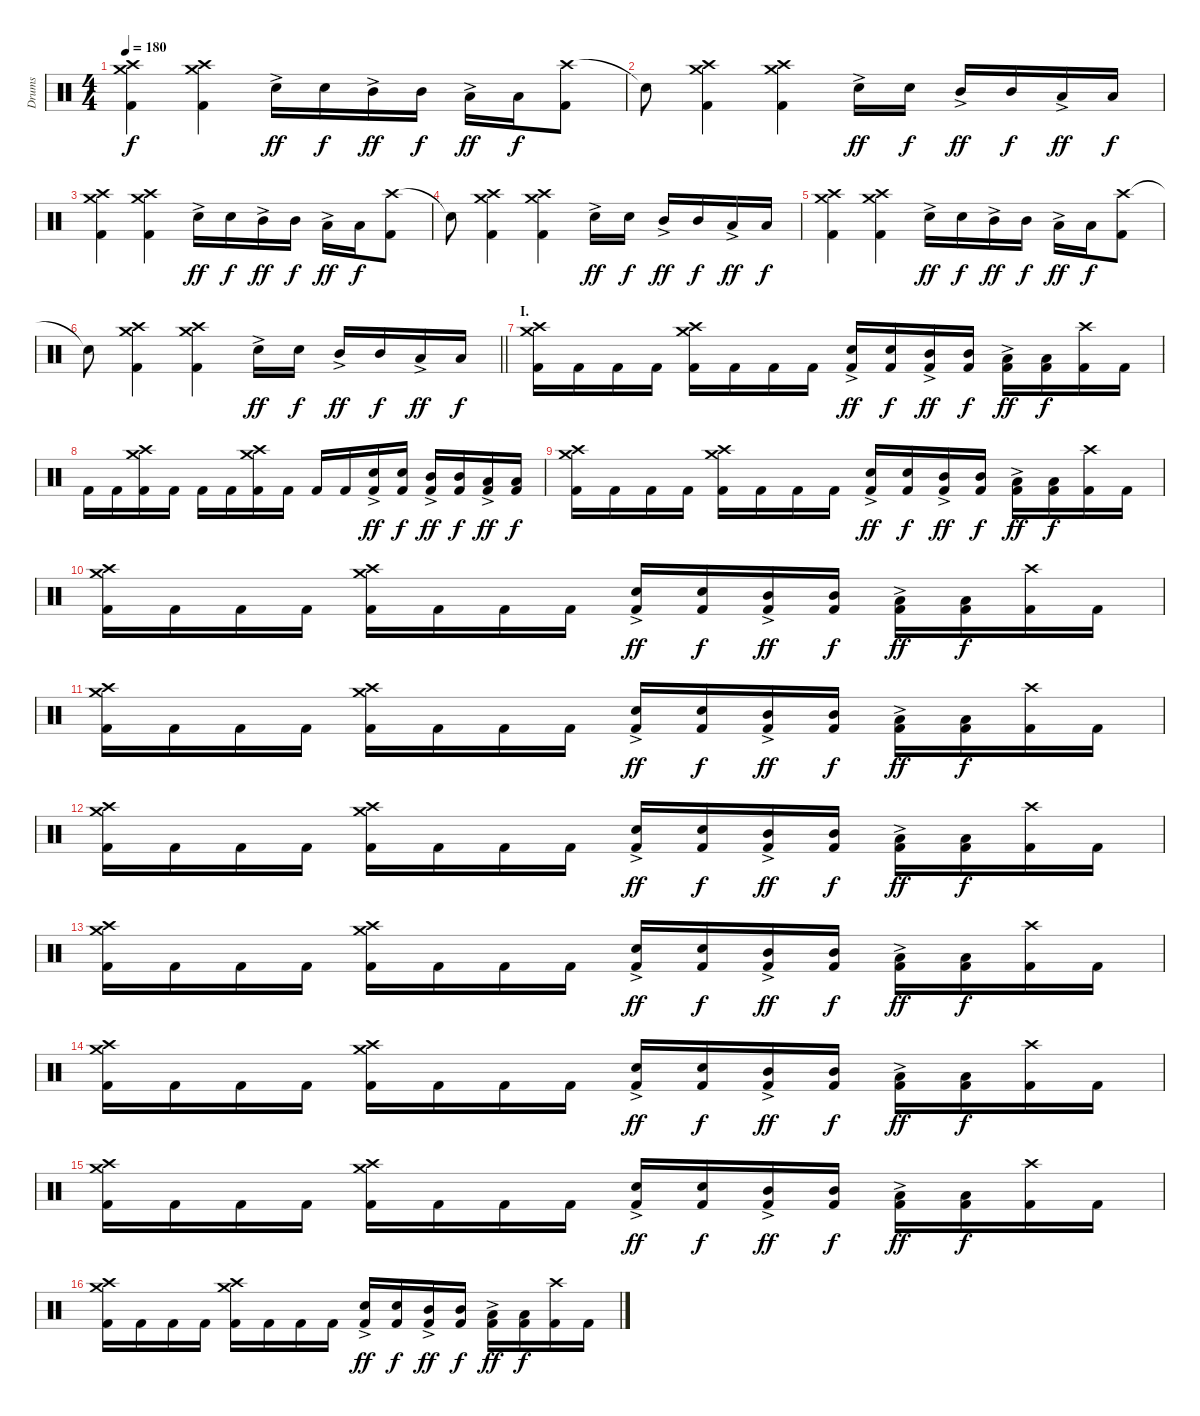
\track ("Drums" "Drums") {instrument percussion}
\staff {score}
\articulation defaults
\ts (4 4)
\tempo 180
\clef neutral
\ks c
("Crash medium (hit)" "Crash high (hit)" "Kick (hit) 2").4{dy f} ("Crash medium (hit)" "Crash high (hit)" "Kick (hit) 2").4 "Electric Snare (hit)"{ac}.16{dy ff} "Electric Snare (hit)".16{dy f} "Mid Tom (hit)"{ac}.16{dy ff} "Mid Tom (hit)".16{dy f} "Low Tom (hit)"{ac}.16{dy ff} "Low Tom (hit)".16{dy f} ("Crash high (hit)" "Kick (hit) 2").8 |
"Snare (hit)"{t}.8 ("Crash medium (hit)" "Crash high (hit)" "Kick (hit) 2").4 ("Crash medium (hit)" "Crash high (hit)" "Kick (hit) 2").4 "Electric Snare (hit)"{ac}.16{dy ff} "Electric Snare (hit)".16{dy f} "Mid Tom (hit)"{ac}.16{dy ff} "Mid Tom (hit)".16{dy f} "Low Tom (hit)"{ac}.16{dy ff} "Low Tom (hit)".16{dy f} |
("Crash medium (hit)" "Crash high (hit)" "Kick (hit) 2").4 ("Crash medium (hit)" "Crash high (hit)" "Kick (hit) 2").4 "Electric Snare (hit)"{ac}.16{dy ff} "Electric Snare (hit)".16{dy f} "Mid Tom (hit)"{ac}.16{dy ff} "Mid Tom (hit)".16{dy f} "Low Tom (hit)"{ac}.16{dy ff} "Low Tom (hit)".16{dy f} ("Crash high (hit)" "Kick (hit) 2").8 |
"Snare (hit)"{t}.8 ("Crash medium (hit)" "Crash high (hit)" "Kick (hit) 2").4 ("Crash medium (hit)" "Crash high (hit)" "Kick (hit) 2").4 "Electric Snare (hit)"{ac}.16{dy ff} "Electric Snare (hit)".16{dy f} "Mid Tom (hit)"{ac}.16{dy ff} "Mid Tom (hit)".16{dy f} "Low Tom (hit)"{ac}.16{dy ff} "Low Tom (hit)".16{dy f} |
("Crash medium (hit)" "Crash high (hit)" "Kick (hit) 2").4 ("Crash medium (hit)" "Crash high (hit)" "Kick (hit) 2").4 "Electric Snare (hit)"{ac}.16{dy ff} "Electric Snare (hit)".16{dy f} "Mid Tom (hit)"{ac}.16{dy ff} "Mid Tom (hit)".16{dy f} "Low Tom (hit)"{ac}.16{dy ff} "Low Tom (hit)".16{dy f} ("Crash high (hit)" "Kick (hit) 2").8 |
\barLineRight lightlight "Snare (hit)"{t}.8
("Crash medium (hit)" "Crash high (hit)" "Kick (hit) 2").4 ("Crash medium (hit)" "Crash high (hit)" "Kick (hit) 2").4 "Electric Snare (hit)"{ac}.16{dy ff} "Electric Snare (hit)".16{dy f} "Mid Tom (hit)"{ac}.16{dy ff} "Mid Tom (hit)".16{dy f} "Low Tom (hit)"{ac}.16{dy ff} "Low Tom (hit)".16{dy f} |
\section ("" "I.")
("Crash medium (hit)" "Crash high (hit)" "Kick (hit) 2").16 "Kick (hit) 2".16 "Kick (hit) 2".16 "Kick (hit) 2".16 ("Crash medium (hit)" "Crash high (hit)" "Kick (hit) 2").16 "Kick (hit) 2".16 "Kick (hit) 2".16 "Kick (hit) 2".16 ("Electric Snare (hit)"{ac} "Kick (hit) 2").16{dy ff} ("Electric Snare (hit)" "Kick (hit) 2").16{dy f} ("Mid Tom (hit)"{ac} "Kick (hit) 2").16{dy ff} ("Mid Tom (hit)" "Kick (hit) 2").16{dy f} ("Low Tom (hit)"{ac} "Kick (hit) 2").16{dy ff} ("Low Tom (hit)" "Kick (hit) 2").16{dy f} ("Crash high (hit)" "Kick (hit) 2").16 "Kick (hit) 2".16 |
"Kick (hit) 2".16 "Kick (hit) 2".16 ("Crash medium (hit)" "Crash high (hit)" "Kick (hit) 2").16 "Kick (hit) 2".16 "Kick (hit) 2".16 "Kick (hit) 2".16 ("Crash medium (hit)" "Crash high (hit)" "Kick (hit) 2").16 "Kick (hit) 2".16 "Kick (hit) 2".16 "Kick (hit) 2".16 ("Electric Snare (hit)"{ac} "Kick (hit) 2").16{dy ff} ("Electric Snare (hit)" "Kick (hit) 2").16{dy f} ("Mid Tom (hit)"{ac} "Kick (hit) 2").16{dy ff} ("Mid Tom (hit)" "Kick (hit) 2").16{dy f} ("Low Tom (hit)"{ac} "Kick (hit) 2").16{dy ff} ("Low Tom (hit)" "Kick (hit) 2").16{dy f} |
("Crash medium (hit)" "Crash high (hit)" "Kick (hit) 2").16 "Kick (hit) 2".16 "Kick (hit) 2".16 "Kick (hit) 2".16 ("Crash medium (hit)" "Crash high (hit)" "Kick (hit) 2").16 "Kick (hit) 2".16 "Kick (hit) 2".16 "Kick (hit) 2".16 ("Electric Snare (hit)"{ac} "Kick (hit) 2").16{dy ff} ("Electric Snare (hit)" "Kick (hit) 2").16{dy f} ("Mid Tom (hit)"{ac} "Kick (hit) 2").16{dy ff} ("Mid Tom (hit)" "Kick (hit) 2").16{dy f} ("Low Tom (hit)"{ac} "Kick (hit) 2").16{dy ff} ("Low Tom (hit)" "Kick (hit) 2").16{dy f} ("Crash high (hit)" "Kick (hit) 2").16 "Kick (hit) 2".16 |
("Crash medium (hit)" "Crash high (hit)" "Kick (hit) 2").16 "Kick (hit) 2".16 "Kick (hit) 2".16 "Kick (hit) 2".16 ("Crash medium (hit)" "Crash high (hit)" "Kick (hit) 2").16 "Kick (hit) 2".16 "Kick (hit) 2".16 "Kick (hit) 2".16 ("Electric Snare (hit)"{ac} "Kick (hit) 2").16{dy ff} ("Electric Snare (hit)" "Kick (hit) 2").16{dy f} ("Mid Tom (hit)"{ac} "Kick (hit) 2").16{dy ff} ("Mid Tom (hit)" "Kick (hit) 2").16{dy f} ("Low Tom (hit)"{ac} "Kick (hit) 2").16{dy ff} ("Low Tom (hit)" "Kick (hit) 2").16{dy f} ("Crash high (hit)" "Kick (hit) 2").16 "Kick (hit) 2".16 |
("Crash medium (hit)" "Crash high (hit)" "Kick (hit) 2").16 "Kick (hit) 2".16 "Kick (hit) 2".16 "Kick (hit) 2".16 ("Crash medium (hit)" "Crash high (hit)" "Kick (hit) 2").16 "Kick (hit) 2".16 "Kick (hit) 2".16 "Kick (hit) 2".16 ("Electric Snare (hit)"{ac} "Kick (hit) 2").16{dy ff} ("Electric Snare (hit)" "Kick (hit) 2").16{dy f} ("Mid Tom (hit)"{ac} "Kick (hit) 2").16{dy ff} ("Mid Tom (hit)" "Kick (hit) 2").16{dy f} ("Low Tom (hit)"{ac} "Kick (hit) 2").16{dy ff} ("Low Tom (hit)" "Kick (hit) 2").16{dy f} ("Crash high (hit)" "Kick (hit) 2").16 "Kick (hit) 2".16 |
("Crash medium (hit)" "Crash high (hit)" "Kick (hit) 2").16 "Kick (hit) 2".16 "Kick (hit) 2".16 "Kick (hit) 2".16 ("Crash medium (hit)" "Crash high (hit)" "Kick (hit) 2").16 "Kick (hit) 2".16 "Kick (hit) 2".16 "Kick (hit) 2".16 ("Electric Snare (hit)"{ac} "Kick (hit) 2").16{dy ff} ("Electric Snare (hit)" "Kick (hit) 2").16{dy f} ("Mid Tom (hit)"{ac} "Kick (hit) 2").16{dy ff} ("Mid Tom (hit)" "Kick (hit) 2").16{dy f} ("Low Tom (hit)"{ac} "Kick (hit) 2").16{dy ff} ("Low Tom (hit)" "Kick (hit) 2").16{dy f} ("Crash high (hit)" "Kick (hit) 2").16 "Kick (hit) 2".16 |
("Crash medium (hit)" "Crash high (hit)" "Kick (hit) 2").16 "Kick (hit) 2".16 "Kick (hit) 2".16 "Kick (hit) 2".16 ("Crash medium (hit)" "Crash high (hit)" "Kick (hit) 2").16 "Kick (hit) 2".16 "Kick (hit) 2".16 "Kick (hit) 2".16 ("Electric Snare (hit)"{ac} "Kick (hit) 2").16{dy ff} ("Electric Snare (hit)" "Kick (hit) 2").16{dy f} ("Mid Tom (hit)"{ac} "Kick (hit) 2").16{dy ff} ("Mid Tom (hit)" "Kick (hit) 2").16{dy f} ("Low Tom (hit)"{ac} "Kick (hit) 2").16{dy ff} ("Low Tom (hit)" "Kick (hit) 2").16{dy f} ("Crash high (hit)" "Kick (hit) 2").16 "Kick (hit) 2".16 |
("Crash medium (hit)" "Crash high (hit)" "Kick (hit) 2").16 "Kick (hit) 2".16 "Kick (hit) 2".16 "Kick (hit) 2".16 ("Crash medium (hit)" "Crash high (hit)" "Kick (hit) 2").16 "Kick (hit) 2".16 "Kick (hit) 2".16 "Kick (hit) 2".16 ("Electric Snare (hit)"{ac} "Kick (hit) 2").16{dy ff} ("Electric Snare (hit)" "Kick (hit) 2").16{dy f} ("Mid Tom (hit)"{ac} "Kick (hit) 2").16{dy ff} ("Mid Tom (hit)" "Kick (hit) 2").16{dy f} ("Low Tom (hit)"{ac} "Kick (hit) 2").16{dy ff} ("Low Tom (hit)" "Kick (hit) 2").16{dy f} ("Crash high (hit)" "Kick (hit) 2").16 "Kick (hit) 2".16 |
("Crash medium (hit)" "Crash high (hit)" "Kick (hit) 2").16 "Kick (hit) 2".16 "Kick (hit) 2".16 "Kick (hit) 2".16 ("Crash medium (hit)" "Crash high (hit)" "Kick (hit) 2").16 "Kick (hit) 2".16 "Kick (hit) 2".16 "Kick (hit) 2".16 ("Electric Snare (hit)"{ac} "Kick (hit) 2").16{dy ff} ("Electric Snare (hit)" "Kick (hit) 2").16{dy f} ("Mid Tom (hit)"{ac} "Kick (hit) 2").16{dy ff} ("Mid Tom (hit)" "Kick (hit) 2").16{dy f} ("Low Tom (hit)"{ac} "Kick (hit) 2").16{dy ff} ("Low Tom (hit)" "Kick (hit) 2").16{dy f} ("Crash high (hit)" "Kick (hit) 2").16 "Kick (hit) 2".16 |
("Crash medium (hit)" "Crash high (hit)" "Kick (hit) 2").16 "Kick (hit) 2".16 "Kick (hit) 2".16 "Kick (hit) 2".16 ("Crash medium (hit)" "Crash high (hit)" "Kick (hit) 2").16 "Kick (hit) 2".16 "Kick (hit) 2".16 "Kick (hit) 2".16 ("Electric Snare (hit)"{ac} "Kick (hit) 2").16{dy ff} ("Electric Snare (hit)" "Kick (hit) 2").16{dy f} ("Mid Tom (hit)"{ac} "Kick (hit) 2").16{dy ff} ("Mid Tom (hit)" "Kick (hit) 2").16{dy f} ("Low Tom (hit)"{ac} "Kick (hit) 2").16{dy ff} ("Low Tom (hit)" "Kick (hit) 2").16{dy f} ("Crash high (hit)" "Kick (hit) 2").16 "Kick (hit) 2".16
